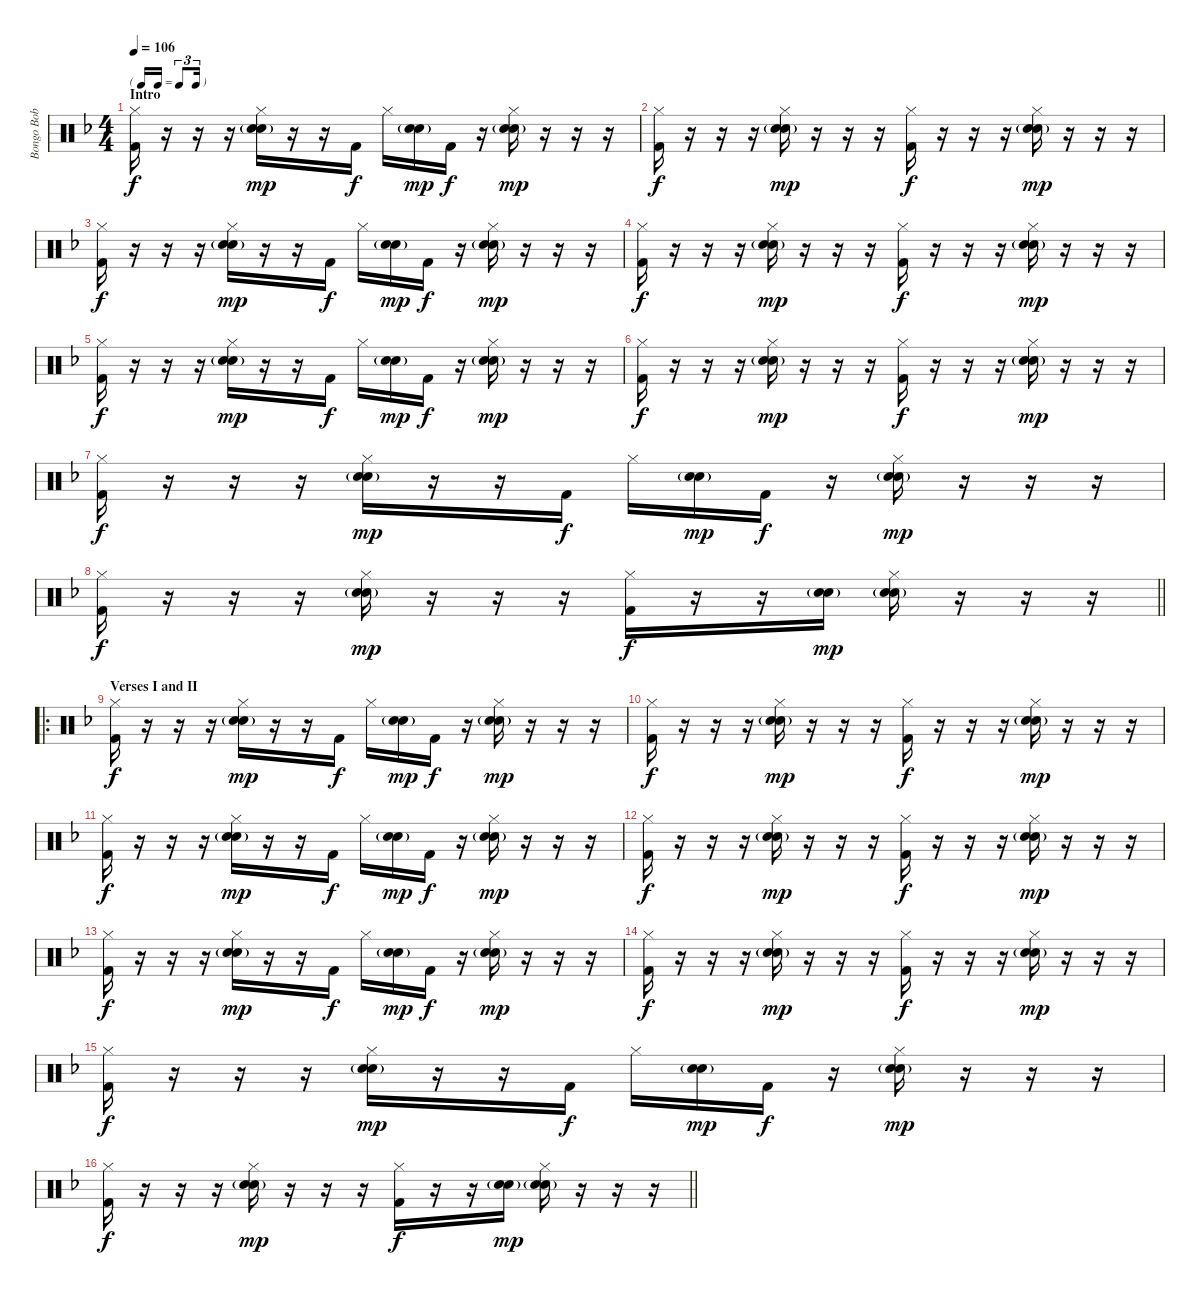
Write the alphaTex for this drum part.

\track ("Bongo Bob Smith (Drums)" "Bongo Bob ") {instrument percussion}
\staff {score}
\articulation defaults
\ts (4 4)
\tf triplet16th
\section ("" "Intro")
\tempo 106
\clef neutral
\ks f
("Hi-Hat (closed)" "Kick (hit) 2").16{dy f} r.16 r.16 r.16 ("Hi-Hat (closed)" "Snare (hit) 2"{g} "Electric Snare (hit)").16{dy mp} r.16 r.16 "Kick (hit) 2".16{dy f} "Hi-Hat (closed)".16 ("Snare (hit) 2"{g} "Electric Snare (hit)").16{dy mp} "Kick (hit) 2".16{dy f} r.16 ("Hi-Hat (closed)" "Snare (hit) 2"{g} "Electric Snare (hit)").16{dy mp} r.16 r.16 r.16 |
("Hi-Hat (closed)" "Kick (hit) 2").16{dy f} r.16 r.16 r.16 ("Hi-Hat (closed)" "Snare (hit) 2"{g} "Electric Snare (hit)").16{dy mp} r.16 r.16 r.16 ("Hi-Hat (closed)" "Kick (hit) 2").16{dy f} r.16 r.16 r.16 ("Hi-Hat (closed)" "Snare (hit) 2"{g} "Electric Snare (hit)").16{dy mp} r.16 r.16 r.16 |
("Hi-Hat (closed)" "Kick (hit) 2").16{dy f} r.16 r.16 r.16 ("Hi-Hat (closed)" "Snare (hit) 2"{g} "Electric Snare (hit)").16{dy mp} r.16 r.16 "Kick (hit) 2".16{dy f} "Hi-Hat (closed)".16 ("Snare (hit) 2"{g} "Electric Snare (hit)").16{dy mp} "Kick (hit) 2".16{dy f} r.16 ("Hi-Hat (closed)" "Snare (hit) 2"{g} "Electric Snare (hit)").16{dy mp} r.16 r.16 r.16 |
("Hi-Hat (closed)" "Kick (hit) 2").16{dy f} r.16 r.16 r.16 ("Hi-Hat (closed)" "Snare (hit) 2"{g} "Electric Snare (hit)").16{dy mp} r.16 r.16 r.16 ("Hi-Hat (closed)" "Kick (hit) 2").16{dy f} r.16 r.16 r.16 ("Hi-Hat (closed)" "Snare (hit) 2"{g} "Electric Snare (hit)").16{dy mp} r.16 r.16 r.16 |
("Hi-Hat (closed)" "Kick (hit) 2").16{dy f} r.16 r.16 r.16 ("Hi-Hat (closed)" "Snare (hit) 2"{g} "Electric Snare (hit)").16{dy mp} r.16 r.16 "Kick (hit) 2".16{dy f} "Hi-Hat (closed)".16 ("Snare (hit) 2"{g} "Electric Snare (hit)").16{dy mp} "Kick (hit) 2".16{dy f} r.16 ("Hi-Hat (closed)" "Snare (hit) 2"{g} "Electric Snare (hit)").16{dy mp} r.16 r.16 r.16 |
("Hi-Hat (closed)" "Kick (hit) 2").16{dy f} r.16 r.16 r.16 ("Hi-Hat (closed)" "Snare (hit) 2"{g} "Electric Snare (hit)").16{dy mp} r.16 r.16 r.16 ("Hi-Hat (closed)" "Kick (hit) 2").16{dy f} r.16 r.16 r.16 ("Hi-Hat (closed)" "Snare (hit) 2"{g} "Electric Snare (hit)").16{dy mp} r.16 r.16 r.16 |
("Hi-Hat (closed)" "Kick (hit) 2").16{dy f} r.16 r.16 r.16 ("Hi-Hat (closed)" "Snare (hit) 2"{g} "Electric Snare (hit)").16{dy mp} r.16 r.16 "Kick (hit) 2".16{dy f} "Hi-Hat (closed)".16 ("Snare (hit) 2"{g} "Electric Snare (hit)").16{dy mp} "Kick (hit) 2".16{dy f} r.16 ("Hi-Hat (closed)" "Snare (hit) 2"{g} "Electric Snare (hit)").16{dy mp} r.16 r.16 r.16 |
\barLineRight lightlight
("Hi-Hat (closed)" "Kick (hit) 2").16{dy f} r.16 r.16 r.16 ("Hi-Hat (closed)" "Snare (hit) 2"{g} "Electric Snare (hit)").16{dy mp} r.16 r.16 r.16 ("Hi-Hat (closed)" "Kick (hit) 2").16{dy f} r.16 r.16 ("Snare (hit) 2"{g} "Electric Snare (hit)").16{dy mp} ("Hi-Hat (closed)" "Snare (hit) 2"{g} "Electric Snare (hit)").16 r.16 r.16 r.16 |
\ro
\section ("" "Verses I and II")
("Hi-Hat (closed)" "Kick (hit) 2").16{dy f} r.16 r.16 r.16 ("Hi-Hat (closed)" "Snare (hit) 2"{g} "Electric Snare (hit)").16{dy mp} r.16 r.16 "Kick (hit) 2".16{dy f} "Hi-Hat (closed)".16 ("Snare (hit) 2"{g} "Electric Snare (hit)").16{dy mp} "Kick (hit) 2".16{dy f} r.16 ("Hi-Hat (closed)" "Snare (hit) 2"{g} "Electric Snare (hit)").16{dy mp} r.16 r.16 r.16 |
("Hi-Hat (closed)" "Kick (hit) 2").16{dy f} r.16 r.16 r.16 ("Hi-Hat (closed)" "Snare (hit) 2"{g} "Electric Snare (hit)").16{dy mp} r.16 r.16 r.16 ("Hi-Hat (closed)" "Kick (hit) 2").16{dy f} r.16 r.16 r.16 ("Hi-Hat (closed)" "Snare (hit) 2"{g} "Electric Snare (hit)").16{dy mp} r.16 r.16 r.16 |
("Hi-Hat (closed)" "Kick (hit) 2").16{dy f} r.16 r.16 r.16 ("Hi-Hat (closed)" "Snare (hit) 2"{g} "Electric Snare (hit)").16{dy mp} r.16 r.16 "Kick (hit) 2".16{dy f} "Hi-Hat (closed)".16 ("Snare (hit) 2"{g} "Electric Snare (hit)").16{dy mp} "Kick (hit) 2".16{dy f} r.16 ("Hi-Hat (closed)" "Snare (hit) 2"{g} "Electric Snare (hit)").16{dy mp} r.16 r.16 r.16 |
("Hi-Hat (closed)" "Kick (hit) 2").16{dy f} r.16 r.16 r.16 ("Hi-Hat (closed)" "Snare (hit) 2"{g} "Electric Snare (hit)").16{dy mp} r.16 r.16 r.16 ("Hi-Hat (closed)" "Kick (hit) 2").16{dy f} r.16 r.16 r.16 ("Hi-Hat (closed)" "Snare (hit) 2"{g} "Electric Snare (hit)").16{dy mp} r.16 r.16 r.16 |
("Hi-Hat (closed)" "Kick (hit) 2").16{dy f} r.16 r.16 r.16 ("Hi-Hat (closed)" "Snare (hit) 2"{g} "Electric Snare (hit)").16{dy mp} r.16 r.16 "Kick (hit) 2".16{dy f} "Hi-Hat (closed)".16 ("Snare (hit) 2"{g} "Electric Snare (hit)").16{dy mp} "Kick (hit) 2".16{dy f} r.16 ("Hi-Hat (closed)" "Snare (hit) 2"{g} "Electric Snare (hit)").16{dy mp} r.16 r.16 r.16 |
("Hi-Hat (closed)" "Kick (hit) 2").16{dy f} r.16 r.16 r.16 ("Hi-Hat (closed)" "Snare (hit) 2"{g} "Electric Snare (hit)").16{dy mp} r.16 r.16 r.16 ("Hi-Hat (closed)" "Kick (hit) 2").16{dy f} r.16 r.16 r.16 ("Hi-Hat (closed)" "Snare (hit) 2"{g} "Electric Snare (hit)").16{dy mp} r.16 r.16 r.16 |
("Hi-Hat (closed)" "Kick (hit) 2").16{dy f} r.16 r.16 r.16 ("Hi-Hat (closed)" "Snare (hit) 2"{g} "Electric Snare (hit)").16{dy mp} r.16 r.16 "Kick (hit) 2".16{dy f} "Hi-Hat (closed)".16 ("Snare (hit) 2"{g} "Electric Snare (hit)").16{dy mp} "Kick (hit) 2".16{dy f} r.16 ("Hi-Hat (closed)" "Snare (hit) 2"{g} "Electric Snare (hit)").16{dy mp} r.16 r.16 r.16 |
\barLineRight lightlight
("Hi-Hat (closed)" "Kick (hit) 2").16{dy f} r.16 r.16 r.16 ("Hi-Hat (closed)" "Snare (hit) 2"{g} "Electric Snare (hit)").16{dy mp} r.16 r.16 r.16 ("Hi-Hat (closed)" "Kick (hit) 2").16{dy f} r.16 r.16 ("Snare (hit) 2"{g} "Electric Snare (hit)").16{dy mp} ("Hi-Hat (closed)" "Snare (hit) 2"{g} "Electric Snare (hit)").16 r.16 r.16 r.16
